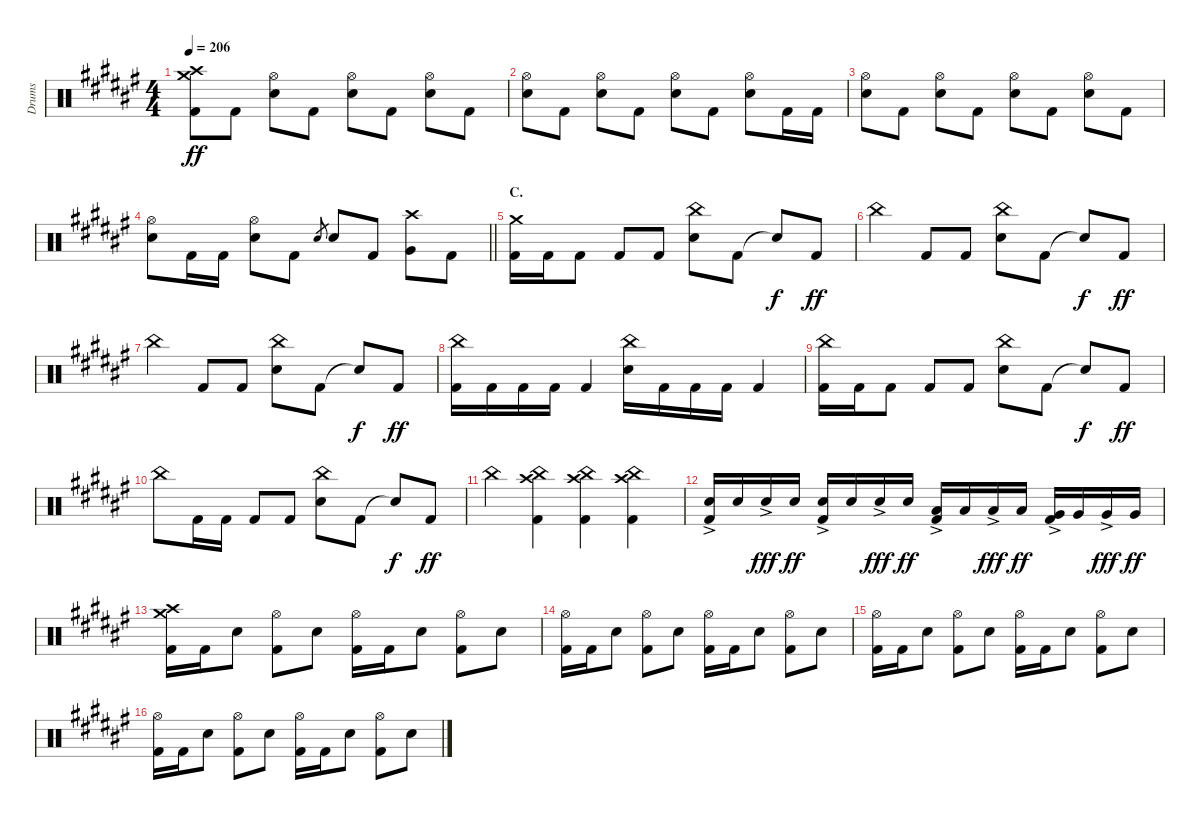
\track ("Drums" "Drums") {instrument percussion}
\staff {score}
\articulation defaults
\ts (4 4)
\tempo 206
\clef neutral
\ks f#
("Crash medium (hit)" "Crash high (hit)" "Kick (hit) 2").8{dy ff} "Kick (hit) 2".8 ("Hi-Hat (open)" "Electric Snare (hit)").8 "Kick (hit) 2".8 ("Hi-Hat (open)" "Electric Snare (hit)").8 "Kick (hit) 2".8 ("Hi-Hat (open)" "Electric Snare (hit)").8 "Kick (hit) 2".8 |
("Hi-Hat (open)" "Electric Snare (hit)").8 "Kick (hit) 2".8 ("Hi-Hat (open)" "Electric Snare (hit)").8 "Kick (hit) 2".8 ("Hi-Hat (open)" "Electric Snare (hit)").8 "Kick (hit) 2".8 ("Hi-Hat (open)" "Electric Snare (hit)").8 "Kick (hit) 2".16 "Kick (hit) 2".16 |
("Hi-Hat (open)" "Electric Snare (hit)").8 "Kick (hit) 2".8 ("Hi-Hat (open)" "Electric Snare (hit)").8 "Kick (hit) 2".8 ("Hi-Hat (open)" "Electric Snare (hit)").8 "Kick (hit) 2".8 ("Hi-Hat (open)" "Electric Snare (hit)").8 "Kick (hit) 2".8 |
\barLineRight lightlight
("Hi-Hat (open)" "Electric Snare (hit)").8 "Kick (hit) 2".16 "Kick (hit) 2".16 ("Hi-Hat (open)" "Electric Snare (hit)").8 "Kick (hit) 2".8 "Electric Snare (hit)".8{gr} "Electric Snare (hit)".8 "Kick (hit) 2".8 ("Crash high (hit)" "Very Low Tom (hit)").8 "Kick (hit) 2".8 |
\section ("" "C.")
("Crash medium (hit)" "Kick (hit) 2").16 "Kick (hit) 2".16 "Kick (hit) 2".8 "Kick (hit) 2".8 "Kick (hit) 2".8 ("China (hit)" "Electric Snare (hit)").8 "Kick (hit) 2".8 "Snare (hit)"{t}.8{dy f} "Kick (hit) 2".8{dy ff} |
"China (hit)".4 "Kick (hit) 2".8 "Kick (hit) 2".8 ("China (hit)" "Electric Snare (hit)").8 "Kick (hit) 2".8 "Snare (hit)"{t}.8{dy f} "Kick (hit) 2".8{dy ff} |
"China (hit)".4 "Kick (hit) 2".8 "Kick (hit) 2".8 ("China (hit)" "Electric Snare (hit)").8 "Kick (hit) 2".8 "Snare (hit)"{t}.8{dy f} "Kick (hit) 2".8{dy ff} |
("China (hit)" "Kick (hit) 2").16 "Kick (hit) 2".16 "Kick (hit) 2".16 "Kick (hit) 2".16 "Kick (hit) 2".4 ("China (hit)" "Electric Snare (hit)").16 "Kick (hit) 2".16 "Kick (hit) 2".16 "Kick (hit) 2".16 "Kick (hit) 2".4 |
("China (hit)" "Kick (hit) 2").16 "Kick (hit) 2".16 "Kick (hit) 2".8 "Kick (hit) 2".8 "Kick (hit) 2".8 ("China (hit)" "Electric Snare (hit)").8 "Kick (hit) 2".8 "Snare (hit)"{t}.8{dy f} "Kick (hit) 2".8{dy ff} |
"China (hit)".8 "Kick (hit) 2".16 "Kick (hit) 2".16 "Kick (hit) 2".8 "Kick (hit) 2".8 ("China (hit)" "Electric Snare (hit)").8 "Kick (hit) 2".8 "Snare (hit)"{t}.8{dy f} "Kick (hit) 2".8{dy ff} |
"China (hit)".4 ("Crash high (hit)" "China (hit)" "Kick (hit) 2").4 ("Crash high (hit)" "China (hit)" "Kick (hit) 2").4 ("Crash high (hit)" "China (hit)" "Kick (hit) 2").4 |
("Electric Snare (hit)"{ac} "Kick (hit) 2").16 "Electric Snare (hit)".16 "Electric Snare (hit)"{ac}.16{dy fff} "Electric Snare (hit)".16{dy ff} ("Electric Snare (hit)"{ac} "Kick (hit) 2").16 "Electric Snare (hit)".16 "Electric Snare (hit)"{ac}.16{dy fff} "Electric Snare (hit)".16{dy ff} ("Low Tom (hit)"{ac} "Kick (hit) 2").16 "Low Tom (hit)".16 "Low Tom (hit)"{ac}.16{dy fff} "Low Tom (hit)".16{dy ff} ("Very Low Tom (hit)"{ac} "Kick (hit) 2").16 "Very Low Tom (hit)".16 "Very Low Tom (hit)"{ac}.16{dy fff} "Very Low Tom (hit)".16{dy ff} |
("Crash medium (hit)" "Crash high (hit)" "Kick (hit) 2").16 "Kick (hit) 2".16 "Electric Snare (hit)".8 ("Hi-Hat (open)" "Kick (hit) 2").8 "Electric Snare (hit)".8 ("Hi-Hat (open)" "Kick (hit) 2").16 "Kick (hit) 2".16 "Electric Snare (hit)".8 ("Hi-Hat (open)" "Kick (hit) 2").8 "Electric Snare (hit)".8 |
("Hi-Hat (open)" "Kick (hit) 2").16 "Kick (hit) 2".16 "Electric Snare (hit)".8 ("Hi-Hat (open)" "Kick (hit) 2").8 "Electric Snare (hit)".8 ("Hi-Hat (open)" "Kick (hit) 2").16 "Kick (hit) 2".16 "Electric Snare (hit)".8 ("Hi-Hat (open)" "Kick (hit) 2").8 "Electric Snare (hit)".8 |
("Hi-Hat (open)" "Kick (hit) 2").16 "Kick (hit) 2".16 "Electric Snare (hit)".8 ("Hi-Hat (open)" "Kick (hit) 2").8 "Electric Snare (hit)".8 ("Hi-Hat (open)" "Kick (hit) 2").16 "Kick (hit) 2".16 "Electric Snare (hit)".8 ("Hi-Hat (open)" "Kick (hit) 2").8 "Electric Snare (hit)".8 |
("Hi-Hat (open)" "Kick (hit) 2").16 "Kick (hit) 2".16 "Electric Snare (hit)".8 ("Hi-Hat (open)" "Kick (hit) 2").8 "Electric Snare (hit)".8 ("Hi-Hat (open)" "Kick (hit) 2").16 "Kick (hit) 2".16 "Electric Snare (hit)".8 ("Hi-Hat (open)" "Kick (hit) 2").8 "Electric Snare (hit)".8
